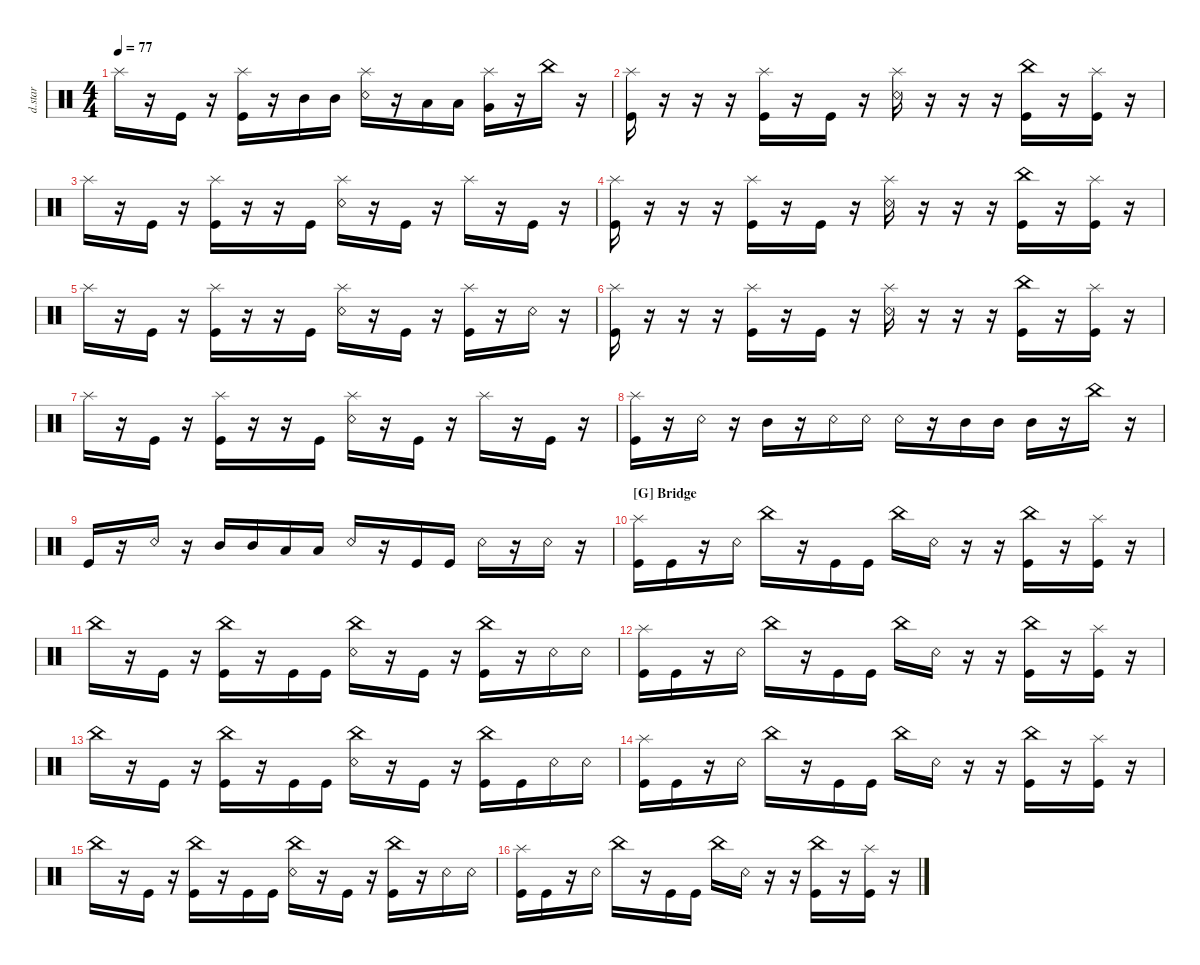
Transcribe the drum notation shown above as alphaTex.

\defaultSystemsLayout 4
\hideDynamics
\bracketExtendMode nobrackets
\otherSystemsTrackNameOrientation horizontal
\track ("Drumkit Star" "d.star") {instrument percussion}
\staff {score}
\articulation defaults
\ts (4 4)
\tempo 77
\clef neutral
\ks c "Splash (hit)".16{dy ff}
r.16 "Kick (hit)".16 r.16 ("Splash (hit)" "Kick (hit)").16 r.16 "Mid Tom (hit)".16 "Mid Tom (hit)".16 ("Splash (hit)" "Snare (rim shot)").16 r.16 "Low Tom (hit)".16 "Low Tom (hit)".16 ("Splash (hit)" "Very Low Tom (hit)").16 r.16 "China (hit)".16 r.16 |
("Splash (hit)" "Kick (hit)").16 r.16 r.16 r.16 ("Splash (hit)" "Kick (hit)").16 r.16 "Kick (hit)".16 r.16 ("Splash (hit)" "Snare (rim shot)").16 r.16 r.16 r.16 ("China (hit)" "Kick (hit)").16 r.16 ("Splash (hit)" "Kick (hit)").16 r.16 |
"Splash (hit)".16 r.16 "Kick (hit)".16 r.16 ("Splash (hit)" "Kick (hit)").16 r.16 r.16 "Kick (hit)".16 ("Splash (hit)" "Snare (rim shot)").16 r.16 "Kick (hit)".16 r.16 "Splash (hit)".16 r.16 "Kick (hit)".16 r.16 |
("Splash (hit)" "Kick (hit)").16 r.16 r.16 r.16 ("Splash (hit)" "Kick (hit)").16 r.16 "Kick (hit)".16 r.16 ("Splash (hit)" "Snare (rim shot)").16 r.16 r.16 r.16 ("China (hit)" "Kick (hit)").16 r.16 ("Splash (hit)" "Kick (hit)").16 r.16 |
"Splash (hit)".16 r.16 "Kick (hit)".16 r.16 ("Splash (hit)" "Kick (hit)").16 r.16 r.16 "Kick (hit)".16 ("Splash (hit)" "Snare (rim shot)").16 r.16 "Kick (hit)".16 r.16 ("Splash (hit)" "Kick (hit)").16 r.16 "Snare (rim shot)".16 r.16 |
("Splash (hit)" "Kick (hit)").16 r.16 r.16 r.16 ("Splash (hit)" "Kick (hit)").16 r.16 "Kick (hit)".16 r.16 ("Splash (hit)" "Snare (rim shot)").16 r.16 r.16 r.16 ("China (hit)" "Kick (hit)").16 r.16 ("Splash (hit)" "Kick (hit)").16 r.16 |
"Splash (hit)".16 r.16 "Kick (hit)".16 r.16 ("Splash (hit)" "Kick (hit)").16 r.16 r.16 "Kick (hit)".16 ("Splash (hit)" "Snare (rim shot)").16 r.16 "Kick (hit)".16 r.16 "Splash (hit)".16 r.16 "Kick (hit)".16 r.16 |
("Kick (hit)" "Splash (hit)").16 r.16 "Snare (rim shot)".16 r.16 "Mid Tom (hit)".16 r.16 "Snare (rim shot)".16 "Snare (rim shot)".16 "Snare (rim shot)".16 r.16 "Mid Tom (hit)".16 "Mid Tom (hit)".16 "Mid Tom (hit)".16 r.16 "China (hit)".16 r.16 |
"Kick (hit)".16 r.16 "Snare (rim shot)".16 r.16 "Mid Tom (hit)".16 "Mid Tom (hit)".16 "Low Tom (hit)".16 "Low Tom (hit)".16 "Snare (rim shot)".16 r.16 "Kick (hit)".16 "Kick (hit)".16 "Snare (rim shot)".16 r.16 "Snare (rim shot)".16 r.16 |
\section ("G" "Bridge")
("Splash (hit)" "Kick (hit)").16 "Kick (hit)".16 r.16 "Snare (rim shot)".16 "China (hit)".16 r.16 "Kick (hit)".16 "Kick (hit)".16 "China (hit)".16 "Snare (rim shot)".16 r.16 r.16 ("China (hit)" "Kick (hit)").16 r.16 ("Splash (hit)" "Kick (hit)").16 r.16 |
"China (hit)".16 r.16 "Kick (hit)".16 r.16 ("China (hit)" "Kick (hit)").16 r.16 "Kick (hit)".16 "Kick (hit)".16 ("China (hit)" "Snare (rim shot)").16 r.16 "Kick (hit)".16 r.16 ("China (hit)" "Kick (hit)").16 r.16 "Snare (rim shot)".16 "Snare (rim shot)".16 |
("Splash (hit)" "Kick (hit)").16 "Kick (hit)".16 r.16 "Snare (rim shot)".16 "China (hit)".16 r.16 "Kick (hit)".16 "Kick (hit)".16 "China (hit)".16 "Snare (rim shot)".16 r.16 r.16 ("China (hit)" "Kick (hit)").16 r.16 ("Splash (hit)" "Kick (hit)").16 r.16 |
"China (hit)".16 r.16 "Kick (hit)".16 r.16 ("China (hit)" "Kick (hit)").16 r.16 "Kick (hit)".16 "Kick (hit)".16 ("China (hit)" "Snare (rim shot)").16 r.16 "Kick (hit)".16 r.16 ("China (hit)" "Kick (hit)").16 "Kick (hit)".16 "Snare (rim shot)".16 "Snare (rim shot)".16 |
("Splash (hit)" "Kick (hit)").16 "Kick (hit)".16 r.16 "Snare (rim shot)".16 "China (hit)".16 r.16 "Kick (hit)".16 "Kick (hit)".16 "China (hit)".16 "Snare (rim shot)".16 r.16 r.16 ("China (hit)" "Kick (hit)").16 r.16 ("Splash (hit)" "Kick (hit)").16 r.16 |
"China (hit)".16 r.16 "Kick (hit)".16 r.16 ("China (hit)" "Kick (hit)").16 r.16 "Kick (hit)".16 "Kick (hit)".16 ("China (hit)" "Snare (rim shot)").16 r.16 "Kick (hit)".16 r.16 ("China (hit)" "Kick (hit)").16 r.16 "Snare (rim shot)".16 "Snare (rim shot)".16 |
("Splash (hit)" "Kick (hit)").16 "Kick (hit)".16 r.16 "Snare (rim shot)".16 "China (hit)".16 r.16 "Kick (hit)".16 "Kick (hit)".16 "China (hit)".16 "Snare (rim shot)".16 r.16 r.16 ("China (hit)" "Kick (hit)").16 r.16 ("Splash (hit)" "Kick (hit)").16 r.16
